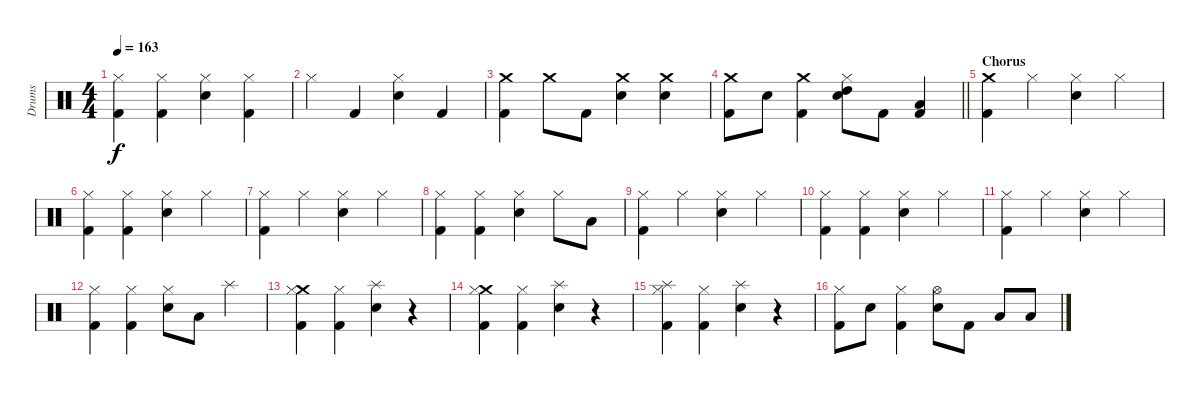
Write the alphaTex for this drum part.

\track ("Drums" "Drums") {instrument percussion}
\staff {score}
\articulation defaults
\ts (4 4)
\tempo 163
\clef neutral
\ks c
("Kick (hit) 2" "Hi-Hat (closed)").4{dy f} ("Kick (hit) 2" "Hi-Hat (closed)").4 ("Snare (hit) 2" "Hi-Hat (closed)").4 ("Kick (hit) 2" "Hi-Hat (closed)").4 |
"Hi-Hat (closed)".4 "Kick (hit) 2".4 ("Snare (hit) 2" "Hi-Hat (closed)").4 "Kick (hit) 2".4 |
("Crash medium (hit)" "Kick (hit) 2").4 "Crash medium (hit)".8 "Kick (hit) 2".8 ("Crash medium (hit)" "Snare (hit) 2").4 ("Crash medium (hit)" "Snare (hit) 2").4 |
\barLineRight lightlight
("Crash medium (hit)" "Kick (hit) 2").8 "Snare (hit) 2".8 ("Crash medium (hit)" "Kick (hit) 2").4 ("Hi-Hat (closed)" "Snare (hit) 2" "High Tom (hit)").8 "Kick (hit) 2".8 ("Kick (hit) 2" "Low Tom (hit)").4 |
\section ("" "Chorus")
("Crash medium (hit)" "Kick (hit) 2").4 "Hi-Hat (closed)".4 ("Hi-Hat (closed)" "Snare (hit) 2").4 "Hi-Hat (closed)".4 |
("Hi-Hat (closed)" "Kick (hit) 2").4 ("Hi-Hat (closed)" "Kick (hit) 2").4 ("Hi-Hat (closed)" "Snare (hit) 2").4 "Hi-Hat (closed)".4 |
("Hi-Hat (closed)" "Kick (hit) 2").4 "Hi-Hat (closed)".4 ("Hi-Hat (closed)" "Snare (hit) 2").4 "Hi-Hat (closed)".4 |
("Hi-Hat (closed)" "Kick (hit) 2").4 ("Hi-Hat (closed)" "Kick (hit) 2").4 ("Hi-Hat (closed)" "Snare (hit) 2").4 "Hi-Hat (closed)".8 "Low Tom (hit)".8 |
("Hi-Hat (closed)" "Kick (hit) 2").4 "Hi-Hat (closed)".4 ("Hi-Hat (closed)" "Snare (hit) 2").4 "Hi-Hat (closed)".4 |
("Hi-Hat (closed)" "Kick (hit) 2").4 ("Hi-Hat (closed)" "Kick (hit) 2").4 ("Hi-Hat (closed)" "Snare (hit) 2").4 "Hi-Hat (closed)".4 |
("Hi-Hat (closed)" "Kick (hit) 2").4 "Hi-Hat (closed)".4 ("Hi-Hat (closed)" "Snare (hit) 2").4 "Hi-Hat (closed)".4 |
("Hi-Hat (closed)" "Kick (hit) 2").4 ("Hi-Hat (closed)" "Kick (hit) 2").4 ("Hi-Hat (closed)" "Snare (hit) 2").8 "Low Tom (hit)".8 "Splash (hit)".4 |
("Crash medium (hit)" "Kick (hit) 2" "Hi-Hat (closed)").4 ("Kick (hit) 2" "Hi-Hat (closed)").4 ("Splash (hit)" "Snare (hit) 2").4 r.4 |
("Crash medium (hit)" "Kick (hit) 2" "Hi-Hat (closed)").4 ("Kick (hit) 2" "Hi-Hat (closed)").4 ("Splash (hit)" "Snare (hit) 2").4 r.4 |
("Splash (hit)" "Kick (hit) 2" "Hi-Hat (closed)").4 ("Kick (hit) 2" "Hi-Hat (closed)").4 ("Splash (hit)" "Snare (hit) 2").4 r.4 |
("Kick (hit) 2" "Hi-Hat (closed)").8 "Snare (hit) 2".8 ("Kick (hit) 2" "Hi-Hat (closed)").4 ("Hi-Hat (open)" "Snare (hit) 2").8 "Kick (hit) 2".8 "Low Tom (hit)".8 "Low Tom (hit)".8
